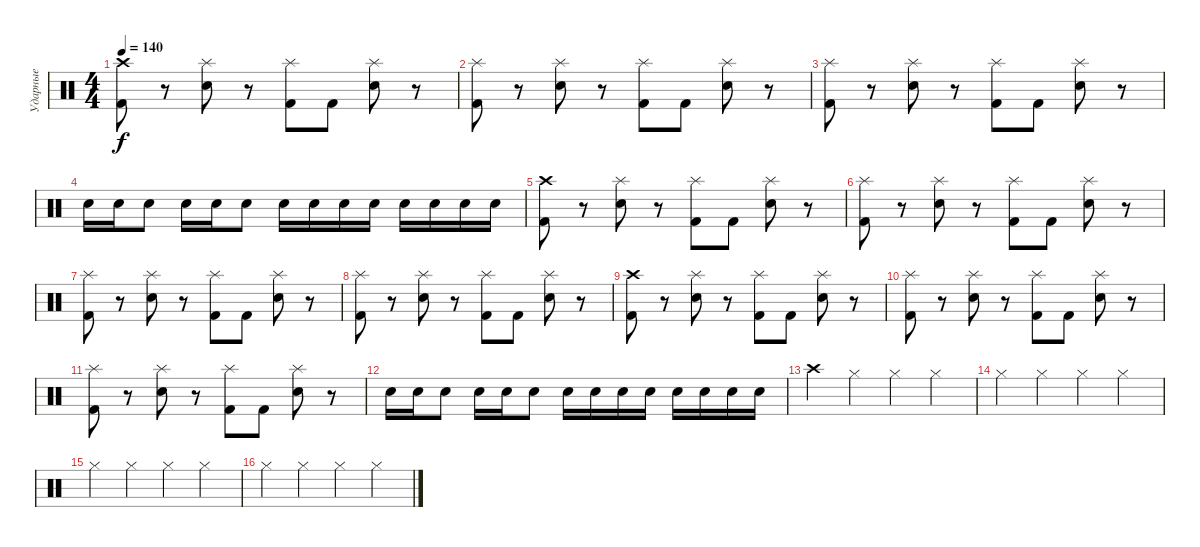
\track ("Ударные" "Ударные") {instrument percussion}
\staff {score}
\articulation defaults
\ts (4 4)
\tempo 140
\clef neutral
\ks c
("Crash high (hit)" "Kick (hit) 2").8{dy f} r.8 ("Splash (hit)" "Electric Snare (hit)").8 r.8 ("Splash (hit)" "Kick (hit) 2").8 "Kick (hit) 2".8 ("Splash (hit)" "Electric Snare (hit)").8 r.8 |
("Splash (hit)" "Kick (hit) 2").8 r.8 ("Splash (hit)" "Electric Snare (hit)").8 r.8 ("Splash (hit)" "Kick (hit) 2").8 "Kick (hit) 2".8 ("Splash (hit)" "Electric Snare (hit)").8 r.8 |
("Splash (hit)" "Kick (hit) 2").8 r.8 ("Splash (hit)" "Electric Snare (hit)").8 r.8 ("Splash (hit)" "Kick (hit) 2").8 "Kick (hit) 2".8 ("Splash (hit)" "Electric Snare (hit)").8 r.8 |
"Electric Snare (hit)".16 "Electric Snare (hit)".16 "Electric Snare (hit)".8 "Electric Snare (hit)".16 "Electric Snare (hit)".16 "Electric Snare (hit)".8 "Electric Snare (hit)".16 "Electric Snare (hit)".16 "Electric Snare (hit)".16 "Electric Snare (hit)".16 "Electric Snare (hit)".16 "Electric Snare (hit)".16 "Electric Snare (hit)".16 "Electric Snare (hit)".16 |
("Crash high (hit)" "Kick (hit) 2").8 r.8 ("Splash (hit)" "Electric Snare (hit)").8 r.8 ("Splash (hit)" "Kick (hit) 2").8 "Kick (hit) 2".8 ("Splash (hit)" "Electric Snare (hit)").8 r.8 |
("Splash (hit)" "Kick (hit) 2").8 r.8 ("Splash (hit)" "Electric Snare (hit)").8 r.8 ("Splash (hit)" "Kick (hit) 2").8 "Kick (hit) 2".8 ("Splash (hit)" "Electric Snare (hit)").8 r.8 |
("Splash (hit)" "Kick (hit) 2").8 r.8 ("Splash (hit)" "Electric Snare (hit)").8 r.8 ("Splash (hit)" "Kick (hit) 2").8 "Kick (hit) 2".8 ("Splash (hit)" "Electric Snare (hit)").8 r.8 |
("Splash (hit)" "Kick (hit) 2").8 r.8 ("Splash (hit)" "Electric Snare (hit)").8 r.8 ("Splash (hit)" "Kick (hit) 2").8 "Kick (hit) 2".8 ("Splash (hit)" "Electric Snare (hit)").8 r.8 |
("Crash high (hit)" "Kick (hit) 2").8 r.8 ("Splash (hit)" "Electric Snare (hit)").8 r.8 ("Splash (hit)" "Kick (hit) 2").8 "Kick (hit) 2".8 ("Splash (hit)" "Electric Snare (hit)").8 r.8 |
("Splash (hit)" "Kick (hit) 2").8 r.8 ("Splash (hit)" "Electric Snare (hit)").8 r.8 ("Splash (hit)" "Kick (hit) 2").8 "Kick (hit) 2".8 ("Splash (hit)" "Electric Snare (hit)").8 r.8 |
("Splash (hit)" "Kick (hit) 2").8 r.8 ("Splash (hit)" "Electric Snare (hit)").8 r.8 ("Splash (hit)" "Kick (hit) 2").8 "Kick (hit) 2".8 ("Splash (hit)" "Electric Snare (hit)").8 r.8 |
"Electric Snare (hit)".16 "Electric Snare (hit)".16 "Electric Snare (hit)".8 "Electric Snare (hit)".16 "Electric Snare (hit)".16 "Electric Snare (hit)".8 "Electric Snare (hit)".16 "Electric Snare (hit)".16 "Electric Snare (hit)".16 "Electric Snare (hit)".16 "Electric Snare (hit)".16 "Electric Snare (hit)".16 "Electric Snare (hit)".16 "Electric Snare (hit)".16 |
"Crash high (hit)".4 "Hi-Hat (closed)".4 "Hi-Hat (closed)".4 "Hi-Hat (closed)".4 |
"Hi-Hat (closed)".4 "Hi-Hat (closed)".4 "Hi-Hat (closed)".4 "Hi-Hat (closed)".4 |
"Hi-Hat (closed)".4 "Hi-Hat (closed)".4 "Hi-Hat (closed)".4 "Hi-Hat (closed)".4 |
"Hi-Hat (closed)".4 "Hi-Hat (closed)".4 "Hi-Hat (closed)".4 "Hi-Hat (closed)".4
